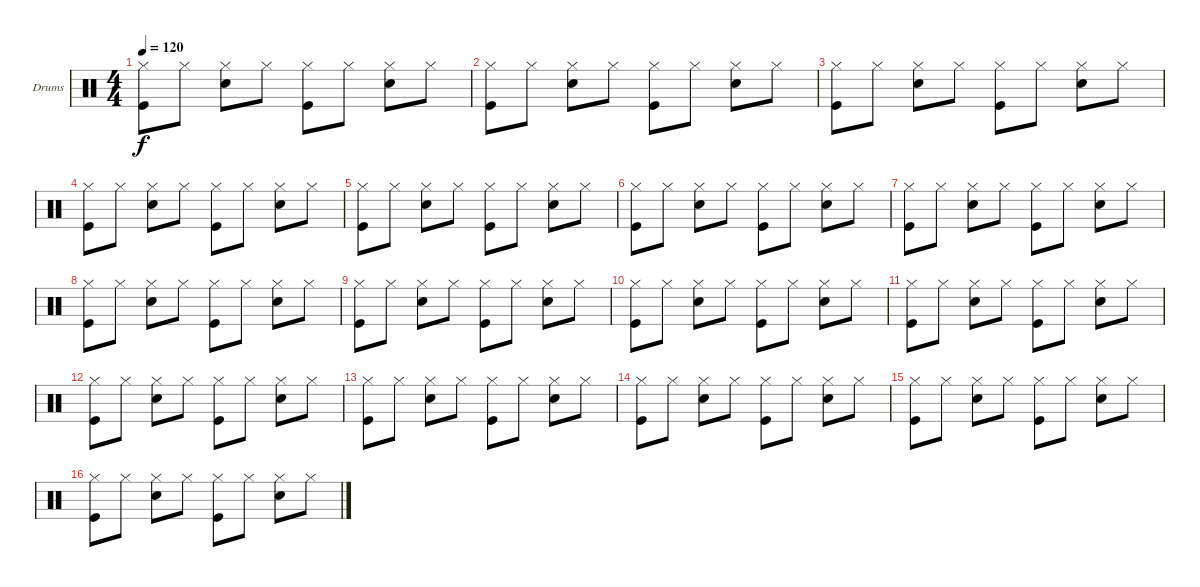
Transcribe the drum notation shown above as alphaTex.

\bracketExtendMode groupsimilarinstruments
\firstSystemTrackNameOrientation horizontal
\otherSystemsTrackNameOrientation horizontal
\track ("Drumkit" "Drums") {instrument percussion}
\staff {score}
\articulation defaults
\ts (4 4)
\tempo 120
\clef neutral
\ks c
("Hi-Hat (closed)" "Kick (hit)").8{dy f} "Hi-Hat (closed)".8 ("Hi-Hat (closed)" "Snare (hit) 2").8 "Hi-Hat (closed)".8 ("Hi-Hat (closed)" "Kick (hit)").8 "Hi-Hat (closed)".8 ("Hi-Hat (closed)" "Snare (hit) 2").8 "Hi-Hat (closed)".8 |
("Hi-Hat (closed)" "Kick (hit)").8 "Hi-Hat (closed)".8 ("Hi-Hat (closed)" "Snare (hit) 2").8 "Hi-Hat (closed)".8 ("Hi-Hat (closed)" "Kick (hit)").8 "Hi-Hat (closed)".8 ("Hi-Hat (closed)" "Snare (hit) 2").8 "Hi-Hat (closed)".8 |
("Hi-Hat (closed)" "Kick (hit)").8 "Hi-Hat (closed)".8 ("Hi-Hat (closed)" "Snare (hit) 2").8 "Hi-Hat (closed)".8 ("Hi-Hat (closed)" "Kick (hit)").8 "Hi-Hat (closed)".8 ("Hi-Hat (closed)" "Snare (hit) 2").8 "Hi-Hat (closed)".8 |
("Hi-Hat (closed)" "Kick (hit)").8 "Hi-Hat (closed)".8 ("Hi-Hat (closed)" "Snare (hit) 2").8 "Hi-Hat (closed)".8 ("Hi-Hat (closed)" "Kick (hit)").8 "Hi-Hat (closed)".8 ("Hi-Hat (closed)" "Snare (hit) 2").8 "Hi-Hat (closed)".8 |
("Hi-Hat (closed)" "Kick (hit)").8 "Hi-Hat (closed)".8 ("Hi-Hat (closed)" "Snare (hit) 2").8 "Hi-Hat (closed)".8 ("Hi-Hat (closed)" "Kick (hit)").8 "Hi-Hat (closed)".8 ("Hi-Hat (closed)" "Snare (hit) 2").8 "Hi-Hat (closed)".8 |
("Hi-Hat (closed)" "Kick (hit)").8 "Hi-Hat (closed)".8 ("Hi-Hat (closed)" "Snare (hit) 2").8 "Hi-Hat (closed)".8 ("Hi-Hat (closed)" "Kick (hit)").8 "Hi-Hat (closed)".8 ("Hi-Hat (closed)" "Snare (hit) 2").8 "Hi-Hat (closed)".8 |
("Hi-Hat (closed)" "Kick (hit)").8 "Hi-Hat (closed)".8 ("Hi-Hat (closed)" "Snare (hit) 2").8 "Hi-Hat (closed)".8 ("Hi-Hat (closed)" "Kick (hit)").8 "Hi-Hat (closed)".8 ("Hi-Hat (closed)" "Snare (hit) 2").8 "Hi-Hat (closed)".8 |
("Hi-Hat (closed)" "Kick (hit)").8 "Hi-Hat (closed)".8 ("Hi-Hat (closed)" "Snare (hit) 2").8 "Hi-Hat (closed)".8 ("Hi-Hat (closed)" "Kick (hit)").8 "Hi-Hat (closed)".8 ("Hi-Hat (closed)" "Snare (hit) 2").8 "Hi-Hat (closed)".8 |
("Hi-Hat (closed)" "Kick (hit)").8 "Hi-Hat (closed)".8 ("Hi-Hat (closed)" "Snare (hit) 2").8 "Hi-Hat (closed)".8 ("Hi-Hat (closed)" "Kick (hit)").8 "Hi-Hat (closed)".8 ("Hi-Hat (closed)" "Snare (hit) 2").8 "Hi-Hat (closed)".8 |
("Hi-Hat (closed)" "Kick (hit)").8 "Hi-Hat (closed)".8 ("Hi-Hat (closed)" "Snare (hit) 2").8 "Hi-Hat (closed)".8 ("Hi-Hat (closed)" "Kick (hit)").8 "Hi-Hat (closed)".8 ("Hi-Hat (closed)" "Snare (hit) 2").8 "Hi-Hat (closed)".8 |
("Hi-Hat (closed)" "Kick (hit)").8 "Hi-Hat (closed)".8 ("Hi-Hat (closed)" "Snare (hit) 2").8 "Hi-Hat (closed)".8 ("Hi-Hat (closed)" "Kick (hit)").8 "Hi-Hat (closed)".8 ("Hi-Hat (closed)" "Snare (hit) 2").8 "Hi-Hat (closed)".8 |
("Hi-Hat (closed)" "Kick (hit)").8 "Hi-Hat (closed)".8 ("Hi-Hat (closed)" "Snare (hit) 2").8 "Hi-Hat (closed)".8 ("Hi-Hat (closed)" "Kick (hit)").8 "Hi-Hat (closed)".8 ("Hi-Hat (closed)" "Snare (hit) 2").8 "Hi-Hat (closed)".8 |
("Hi-Hat (closed)" "Kick (hit)").8 "Hi-Hat (closed)".8 ("Hi-Hat (closed)" "Snare (hit) 2").8 "Hi-Hat (closed)".8 ("Hi-Hat (closed)" "Kick (hit)").8 "Hi-Hat (closed)".8 ("Hi-Hat (closed)" "Snare (hit) 2").8 "Hi-Hat (closed)".8 |
("Hi-Hat (closed)" "Kick (hit)").8 "Hi-Hat (closed)".8 ("Hi-Hat (closed)" "Snare (hit) 2").8 "Hi-Hat (closed)".8 ("Hi-Hat (closed)" "Kick (hit)").8 "Hi-Hat (closed)".8 ("Hi-Hat (closed)" "Snare (hit) 2").8 "Hi-Hat (closed)".8 |
("Hi-Hat (closed)" "Kick (hit)").8 "Hi-Hat (closed)".8 ("Hi-Hat (closed)" "Snare (hit) 2").8 "Hi-Hat (closed)".8 ("Hi-Hat (closed)" "Kick (hit)").8 "Hi-Hat (closed)".8 ("Hi-Hat (closed)" "Snare (hit) 2").8 "Hi-Hat (closed)".8 |
("Hi-Hat (closed)" "Kick (hit)").8 "Hi-Hat (closed)".8 ("Hi-Hat (closed)" "Snare (hit) 2").8 "Hi-Hat (closed)".8 ("Hi-Hat (closed)" "Kick (hit)").8 "Hi-Hat (closed)".8 ("Hi-Hat (closed)" "Snare (hit) 2").8 "Hi-Hat (closed)".8
